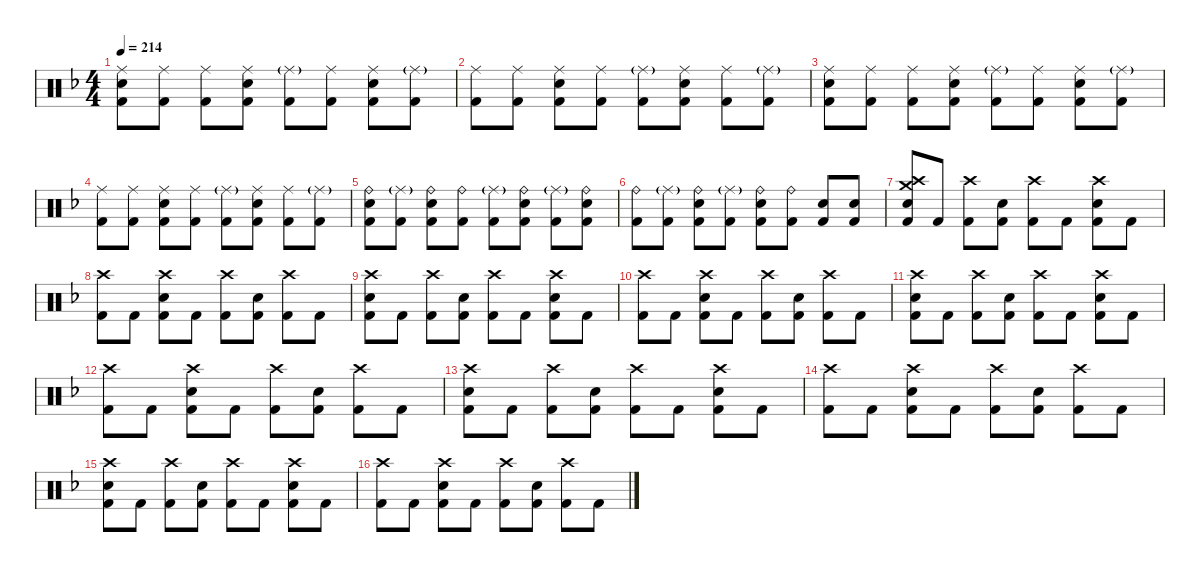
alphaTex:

\hideDynamics
\bracketExtendMode nobrackets
\singleTrackTrackNamePolicy hidden
\multiTrackTrackNamePolicy hidden
\firstSystemTrackNameMode fullname
\firstSystemTrackNameOrientation horizontal
\otherSystemsTrackNameOrientation horizontal
\track ("Drumkit" "Drums") {defaultSystemsLayout 4 instrument percussion}
\staff {score}
\articulation defaults
\ts (4 4)
\tempo 214
\clef neutral
\ks dminor
("Ride (middle)"{acc forcenatural} "Snare (hit) 2"{acc forcenatural} "Kick (hit) 2"{acc forcenatural}).8{dy mf beam Down} ("Ride (middle)"{acc forcenatural} "Kick (hit) 2"{acc forcenatural}).8{beam Down} ("Ride (middle)"{acc forcenatural} "Kick (hit) 2"{acc forcenatural}).8{beam Down} ("Ride (middle)"{acc forcenatural} "Snare (hit) 2"{acc forcenatural} "Kick (hit) 2"{acc forcenatural}).8{beam Down} ("Ride (middle)"{g acc forcenatural} "Kick (hit) 2"{acc forcenatural}).8{dy f beam Down} ("Ride (middle)"{acc forcenatural} "Kick (hit) 2"{acc forcenatural}).8{dy mf beam Down} ("Ride (middle)"{acc forcenatural} "Snare (hit) 2"{acc forcenatural} "Kick (hit) 2"{acc forcenatural}).8{beam Down} ("Ride (middle)"{g acc forcenatural} "Kick (hit) 2"{acc forcenatural}).8{dy f beam Down} |
("Ride (middle)"{acc forcenatural} "Kick (hit) 2"{acc forcenatural}).8{dy mf beam Down} ("Ride (middle)"{acc forcenatural} "Kick (hit) 2"{acc forcenatural}).8{beam Down} ("Ride (middle)"{acc forcenatural} "Snare (hit) 2"{acc forcenatural} "Kick (hit) 2"{acc forcenatural}).8{beam Down} ("Ride (middle)"{acc forcenatural} "Kick (hit) 2"{acc forcenatural}).8{beam Down} ("Ride (middle)"{g acc forcenatural} "Kick (hit) 2"{acc forcenatural}).8{dy f beam Down} ("Ride (middle)"{acc forcenatural} "Snare (hit) 2"{acc forcenatural} "Kick (hit) 2"{acc forcenatural}).8{dy mf beam Down} ("Ride (middle)"{acc forcenatural} "Kick (hit) 2"{acc forcenatural}).8{beam Down} ("Ride (middle)"{g acc forcenatural} "Kick (hit) 2"{acc forcenatural}).8{dy f beam Down} |
("Ride (middle)"{acc forcenatural} "Snare (hit) 2"{acc forcenatural} "Kick (hit) 2"{acc forcenatural}).8{dy mf beam Down} ("Ride (middle)"{acc forcenatural} "Kick (hit) 2"{acc forcenatural}).8{beam Down} ("Ride (middle)"{acc forcenatural} "Kick (hit) 2"{acc forcenatural}).8{beam Down} ("Ride (middle)"{acc forcenatural} "Snare (hit) 2"{acc forcenatural} "Kick (hit) 2"{acc forcenatural}).8{beam Down} ("Ride (middle)"{g acc forcenatural} "Kick (hit) 2"{acc forcenatural}).8{dy f beam Down} ("Ride (middle)"{acc forcenatural} "Kick (hit) 2"{acc forcenatural}).8{dy mf beam Down} ("Ride (middle)"{acc forcenatural} "Snare (hit) 2"{acc forcenatural} "Kick (hit) 2"{acc forcenatural}).8{beam Down} ("Ride (middle)"{g acc forcenatural} "Kick (hit) 2"{acc forcenatural}).8{dy f beam Down} |
("Ride (middle)"{acc forcenatural} "Kick (hit) 2"{acc forcenatural}).8{dy mf beam Down} ("Ride (middle)"{acc forcenatural} "Kick (hit) 2"{acc forcenatural}).8{beam Down} ("Ride (middle)"{acc forcenatural} "Snare (hit) 2"{acc forcenatural} "Kick (hit) 2"{acc forcenatural}).8{beam Down} ("Ride (middle)"{acc forcenatural} "Kick (hit) 2"{acc forcenatural}).8{beam Down} ("Ride (middle)"{g acc forcenatural} "Kick (hit) 2"{acc forcenatural}).8{dy f beam Down} ("Ride (middle)"{acc forcenatural} "Snare (hit) 2"{acc forcenatural} "Kick (hit) 2"{acc forcenatural}).8{dy mf beam Down} ("Ride (middle)"{acc forcenatural} "Kick (hit) 2"{acc forcenatural}).8{beam Down} ("Ride (middle)"{g acc forcenatural} "Kick (hit) 2"{acc forcenatural}).8{dy f beam Down} |
("Ride (bell)"{acc forcenatural} "Snare (hit) 2"{acc forcenatural} "Kick (hit) 2"{acc forcenatural}).8{dy mf beam Down} ("Ride (middle)"{g acc forcenatural} "Kick (hit) 2"{acc forcenatural}).8{dy f beam Down} ("Ride (bell)"{acc forcenatural} "Snare (hit) 2"{acc forcenatural} "Kick (hit) 2"{acc forcenatural}).8{dy mf beam Down} ("Ride (bell)"{acc forcenatural} "Kick (hit) 2"{acc forcenatural}).8{beam Down} ("Ride (middle)"{g acc forcenatural} "Kick (hit) 2"{acc forcenatural}).8{dy f beam Down} ("Ride (bell)"{acc forcenatural} "Snare (hit) 2"{acc forcenatural} "Kick (hit) 2"{acc forcenatural}).8{dy mf beam Down} ("Ride (middle)"{g acc forcenatural} "Kick (hit) 2"{acc forcenatural}).8{dy f beam Down} ("Ride (bell)"{acc forcenatural} "Snare (hit) 2"{acc forcenatural} "Kick (hit) 2"{acc forcenatural}).8{dy mf beam Down} |
("Ride (bell)"{acc forcenatural} "Kick (hit) 2"{acc forcenatural}).8{beam Down} ("Ride (middle)"{g acc forcenatural} "Kick (hit) 2"{acc forcenatural}).8{dy f beam Down} ("Ride (bell)"{acc forcenatural} "Snare (hit) 2"{acc forcenatural} "Kick (hit) 2"{acc forcenatural}).8{dy mf beam Down} ("Ride (middle)"{g acc forcenatural} "Kick (hit) 2"{acc forcenatural}).8{dy f beam Down} ("Ride (bell)"{acc forcenatural} "Snare (hit) 2"{acc forcenatural} "Kick (hit) 2"{acc forcenatural}).8{dy mf beam Down} ("Ride (bell)"{acc forcenatural} "Kick (hit) 2"{acc forcenatural}).8{beam Down} ("Snare (hit) 2"{acc forcenatural} "Kick (hit) 2"{acc forcenatural}).8{dy f beam Up} ("Snare (hit) 2"{acc forcenatural} "Kick (hit) 2"{acc forcenatural}).8{beam Up} |
("Crash medium (hit)"{acc forcenatural} "Crash high (hit)"{acc forcenatural} "Snare (hit) 2"{acc forcenatural} "Kick (hit) 2"{acc forcenatural}).8{beam Up} "Kick (hit) 2"{acc forcenatural}.8{beam Up} ("Crash high (hit)"{acc forcenatural} "Kick (hit) 2"{acc forcenatural}).8{dy mf beam Down} ("Snare (hit) 2"{acc forcenatural} "Kick (hit) 2"{acc forcenatural}).8{dy f beam Down} ("Crash high (hit)"{acc forcenatural} "Kick (hit) 2"{acc forcenatural}).8{dy mf beam Down} "Kick (hit) 2"{acc forcenatural}.8{dy f beam Down} ("Crash high (hit)"{acc forcenatural} "Snare (hit) 2"{acc forcenatural} "Kick (hit) 2"{acc forcenatural}).8{dy mf beam Down} "Kick (hit) 2"{acc forcenatural}.8{dy f beam Down} |
("Crash high (hit)"{acc forcenatural} "Kick (hit) 2"{acc forcenatural}).8{dy mf beam Down} "Kick (hit) 2"{acc forcenatural}.8{dy f beam Down} ("Crash high (hit)"{acc forcenatural} "Snare (hit) 2"{acc forcenatural} "Kick (hit) 2"{acc forcenatural}).8{dy mf beam Down} "Kick (hit) 2"{acc forcenatural}.8{dy f beam Down} ("Crash high (hit)"{acc forcenatural} "Kick (hit) 2"{acc forcenatural}).8{dy mf beam Down} ("Snare (hit) 2"{acc forcenatural} "Kick (hit) 2"{acc forcenatural}).8{dy f beam Down} ("Crash high (hit)"{acc forcenatural} "Kick (hit) 2"{acc forcenatural}).8{dy mf beam Down} "Kick (hit) 2"{acc forcenatural}.8{dy f beam Down} |
("Crash high (hit)"{acc forcenatural} "Snare (hit) 2"{acc forcenatural} "Kick (hit) 2"{acc forcenatural}).8{dy mf beam Down} "Kick (hit) 2"{acc forcenatural}.8{dy f beam Down} ("Crash high (hit)"{acc forcenatural} "Kick (hit) 2"{acc forcenatural}).8{dy mf beam Down} ("Snare (hit) 2"{acc forcenatural} "Kick (hit) 2"{acc forcenatural}).8{dy f beam Down} ("Crash high (hit)"{acc forcenatural} "Kick (hit) 2"{acc forcenatural}).8{dy mf beam Down} "Kick (hit) 2"{acc forcenatural}.8{dy f beam Down} ("Crash high (hit)"{acc forcenatural} "Snare (hit) 2"{acc forcenatural} "Kick (hit) 2"{acc forcenatural}).8{dy mf beam Down} "Kick (hit) 2"{acc forcenatural}.8{dy f beam Down} |
("Crash high (hit)"{acc forcenatural} "Kick (hit) 2"{acc forcenatural}).8{dy mf beam Down} "Kick (hit) 2"{acc forcenatural}.8{dy f beam Down} ("Crash high (hit)"{acc forcenatural} "Snare (hit) 2"{acc forcenatural} "Kick (hit) 2"{acc forcenatural}).8{dy mf beam Down} "Kick (hit) 2"{acc forcenatural}.8{dy f beam Down} ("Crash high (hit)"{acc forcenatural} "Kick (hit) 2"{acc forcenatural}).8{dy mf beam Down} ("Snare (hit) 2"{acc forcenatural} "Kick (hit) 2"{acc forcenatural}).8{dy f beam Down} ("Crash high (hit)"{acc forcenatural} "Kick (hit) 2"{acc forcenatural}).8{dy mf beam Down} "Kick (hit) 2"{acc forcenatural}.8{dy f beam Down} |
("Crash high (hit)"{acc forcenatural} "Snare (hit) 2"{acc forcenatural} "Kick (hit) 2"{acc forcenatural}).8{dy mf beam Down} "Kick (hit) 2"{acc forcenatural}.8{dy f beam Down} ("Crash high (hit)"{acc forcenatural} "Kick (hit) 2"{acc forcenatural}).8{dy mf beam Down} ("Snare (hit) 2"{acc forcenatural} "Kick (hit) 2"{acc forcenatural}).8{dy f beam Down} ("Crash high (hit)"{acc forcenatural} "Kick (hit) 2"{acc forcenatural}).8{dy mf beam Down} "Kick (hit) 2"{acc forcenatural}.8{dy f beam Down} ("Crash high (hit)"{acc forcenatural} "Snare (hit) 2"{acc forcenatural} "Kick (hit) 2"{acc forcenatural}).8{dy mf beam Down} "Kick (hit) 2"{acc forcenatural}.8{dy f beam Down} |
("Crash high (hit)"{acc forcenatural} "Kick (hit) 2"{acc forcenatural}).8{dy mf beam Down} "Kick (hit) 2"{acc forcenatural}.8{dy f beam Down} ("Crash high (hit)"{acc forcenatural} "Snare (hit) 2"{acc forcenatural} "Kick (hit) 2"{acc forcenatural}).8{dy mf beam Down} "Kick (hit) 2"{acc forcenatural}.8{dy f beam Down} ("Crash high (hit)"{acc forcenatural} "Kick (hit) 2"{acc forcenatural}).8{dy mf beam Down} ("Snare (hit) 2"{acc forcenatural} "Kick (hit) 2"{acc forcenatural}).8{dy f beam Down} ("Crash high (hit)"{acc forcenatural} "Kick (hit) 2"{acc forcenatural}).8{dy mf beam Down} "Kick (hit) 2"{acc forcenatural}.8{dy f beam Down} |
("Crash high (hit)"{acc forcenatural} "Snare (hit) 2"{acc forcenatural} "Kick (hit) 2"{acc forcenatural}).8{dy mf beam Down} "Kick (hit) 2"{acc forcenatural}.8{dy f beam Down} ("Crash high (hit)"{acc forcenatural} "Kick (hit) 2"{acc forcenatural}).8{dy mf beam Down} ("Snare (hit) 2"{acc forcenatural} "Kick (hit) 2"{acc forcenatural}).8{dy f beam Down} ("Crash high (hit)"{acc forcenatural} "Kick (hit) 2"{acc forcenatural}).8{dy mf beam Down} "Kick (hit) 2"{acc forcenatural}.8{dy f beam Down} ("Crash high (hit)"{acc forcenatural} "Snare (hit) 2"{acc forcenatural} "Kick (hit) 2"{acc forcenatural}).8{dy mf beam Down} "Kick (hit) 2"{acc forcenatural}.8{dy f beam Down} |
("Crash high (hit)"{acc forcenatural} "Kick (hit) 2"{acc forcenatural}).8{dy mf beam Down} "Kick (hit) 2"{acc forcenatural}.8{dy f beam Down} ("Crash high (hit)"{acc forcenatural} "Snare (hit) 2"{acc forcenatural} "Kick (hit) 2"{acc forcenatural}).8{dy mf beam Down} "Kick (hit) 2"{acc forcenatural}.8{dy f beam Down} ("Crash high (hit)"{acc forcenatural} "Kick (hit) 2"{acc forcenatural}).8{dy mf beam Down} ("Snare (hit) 2"{acc forcenatural} "Kick (hit) 2"{acc forcenatural}).8{dy f beam Down} ("Crash high (hit)"{acc forcenatural} "Kick (hit) 2"{acc forcenatural}).8{dy mf beam Down} "Kick (hit) 2"{acc forcenatural}.8{dy f beam Down} |
("Crash high (hit)"{acc forcenatural} "Snare (hit) 2"{acc forcenatural} "Kick (hit) 2"{acc forcenatural}).8{dy mf beam Down} "Kick (hit) 2"{acc forcenatural}.8{dy f beam Down} ("Crash high (hit)"{acc forcenatural} "Kick (hit) 2"{acc forcenatural}).8{dy mf beam Down} ("Snare (hit) 2"{acc forcenatural} "Kick (hit) 2"{acc forcenatural}).8{dy f beam Down} ("Crash high (hit)"{acc forcenatural} "Kick (hit) 2"{acc forcenatural}).8{dy mf beam Down} "Kick (hit) 2"{acc forcenatural}.8{dy f beam Down} ("Crash high (hit)"{acc forcenatural} "Snare (hit) 2"{acc forcenatural} "Kick (hit) 2"{acc forcenatural}).8{dy mf beam Down} "Kick (hit) 2"{acc forcenatural}.8{dy f beam Down} |
("Crash high (hit)"{acc forcenatural} "Kick (hit) 2"{acc forcenatural}).8{dy mf beam Down} "Kick (hit) 2"{acc forcenatural}.8{dy f beam Down} ("Crash high (hit)"{acc forcenatural} "Snare (hit) 2"{acc forcenatural} "Kick (hit) 2"{acc forcenatural}).8{dy mf beam Down} "Kick (hit) 2"{acc forcenatural}.8{dy f beam Down} ("Crash high (hit)"{acc forcenatural} "Kick (hit) 2"{acc forcenatural}).8{dy mf beam Down} ("Snare (hit) 2"{acc forcenatural} "Kick (hit) 2"{acc forcenatural}).8{dy f beam Down} ("Crash high (hit)"{acc forcenatural} "Kick (hit) 2"{acc forcenatural}).8{dy mf beam Down} "Kick (hit) 2"{acc forcenatural}.8{dy f beam Down}
